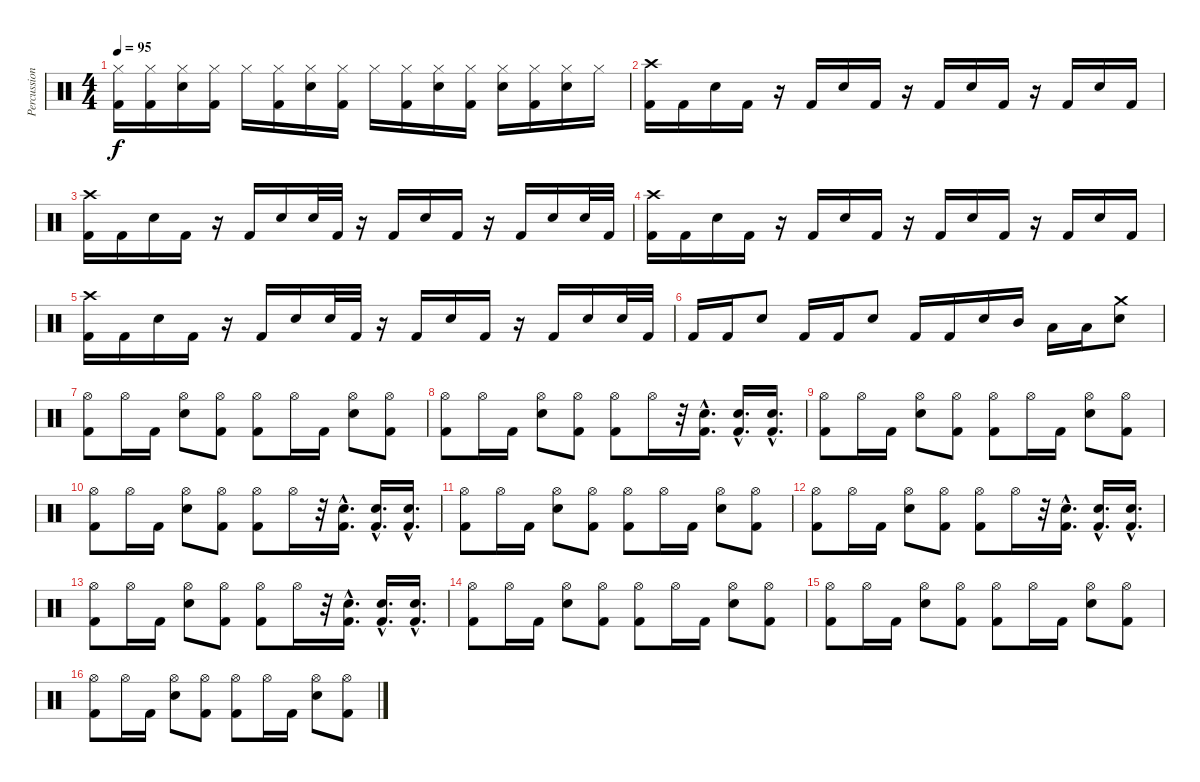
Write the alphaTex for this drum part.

\track ("Percussion" "Percussion") {instrument percussion}
\staff {score}
\articulation defaults
\ts (4 4)
\tempo 95
\clef neutral
\ks c
("Hi-Hat (closed)" "Kick (hit) 2").16{dy f} ("Hi-Hat (closed)" "Kick (hit) 2").16 ("Hi-Hat (closed)" "Electric Snare (hit)").16 ("Hi-Hat (closed)" "Kick (hit) 2").16 "Hi-Hat (closed)".16 ("Hi-Hat (closed)" "Kick (hit) 2").16 ("Hi-Hat (closed)" "Electric Snare (hit)").16 ("Hi-Hat (closed)" "Kick (hit) 2").16 "Hi-Hat (closed)".16 ("Hi-Hat (closed)" "Kick (hit) 2").16 ("Hi-Hat (closed)" "Electric Snare (hit)").16 ("Hi-Hat (closed)" "Kick (hit) 2").16 ("Hi-Hat (closed)" "Electric Snare (hit)").16 ("Hi-Hat (closed)" "Kick (hit) 2").16 ("Hi-Hat (closed)" "Electric Snare (hit)").16 "Hi-Hat (closed)".16 |
("Crash high (hit)" "Kick (hit) 2").16 "Kick (hit) 2".16 "Electric Snare (hit)".16 "Kick (hit) 2".16 r.16 "Kick (hit) 2".16 "Electric Snare (hit)".16 "Kick (hit) 2".16 r.16 "Kick (hit) 2".16 "Electric Snare (hit)".16 "Kick (hit) 2".16 r.16 "Kick (hit) 2".16 "Electric Snare (hit)".16 "Kick (hit) 2".16 |
("Crash high (hit)" "Kick (hit) 2").16 "Kick (hit) 2".16 "Electric Snare (hit)".16 "Kick (hit) 2".16 r.16 "Kick (hit) 2".16 "Electric Snare (hit)".16 "Electric Snare (hit)".32 "Kick (hit) 2".32 r.16 "Kick (hit) 2".16 "Electric Snare (hit)".16 "Kick (hit) 2".16 r.16 "Kick (hit) 2".16 "Electric Snare (hit)".16 "Electric Snare (hit)".32 "Kick (hit) 2".32 |
("Crash high (hit)" "Kick (hit) 2").16 "Kick (hit) 2".16 "Electric Snare (hit)".16 "Kick (hit) 2".16 r.16 "Kick (hit) 2".16 "Electric Snare (hit)".16 "Kick (hit) 2".16 r.16 "Kick (hit) 2".16 "Electric Snare (hit)".16 "Kick (hit) 2".16 r.16 "Kick (hit) 2".16 "Electric Snare (hit)".16 "Kick (hit) 2".16 |
("Crash high (hit)" "Kick (hit) 2").16 "Kick (hit) 2".16 "Electric Snare (hit)".16 "Kick (hit) 2".16 r.16 "Kick (hit) 2".16 "Electric Snare (hit)".16 "Electric Snare (hit)".32 "Kick (hit) 2".32 r.16 "Kick (hit) 2".16 "Electric Snare (hit)".16 "Kick (hit) 2".16 r.16 "Kick (hit) 2".16 "Electric Snare (hit)".16 "Electric Snare (hit)".32 "Kick (hit) 2".32 |
"Kick (hit) 2".16 "Kick (hit) 2".16 "Electric Snare (hit)".8 "Kick (hit) 2".16 "Kick (hit) 2".16 "Electric Snare (hit)".8 "Kick (hit) 2".16 "Kick (hit) 2".16 "Electric Snare (hit)".16 "Mid Tom (hit)".16 "Low Tom (hit)".16 "Low Tom (hit)".16 ("Crash medium (hit)" "Electric Snare (hit)").8 |
("Hi-Hat (open)" "Kick (hit) 2").8 "Hi-Hat (open)".16 "Kick (hit) 2".16 ("Hi-Hat (open)" "Electric Snare (hit)").8 ("Hi-Hat (open)" "Kick (hit) 2").8 ("Hi-Hat (open)" "Kick (hit) 2").8 "Hi-Hat (open)".16 "Kick (hit) 2".16 ("Hi-Hat (open)" "Electric Snare (hit)").8 ("Hi-Hat (open)" "Kick (hit) 2").8 |
("Hi-Hat (open)" "Kick (hit) 2").8 "Hi-Hat (open)".16 "Kick (hit) 2".16 ("Hi-Hat (open)" "Electric Snare (hit)").8 ("Hi-Hat (open)" "Kick (hit) 2").8 ("Hi-Hat (open)" "Kick (hit) 2").8 "Hi-Hat (open)".16 r.32 ("Electric Snare (hit)"{hac} "Kick (hit) 2"{hac}).16{d} ("Electric Snare (hit)"{hac} "Kick (hit) 2"{hac}).16{d} ("Electric Snare (hit)"{hac} "Kick (hit) 2"{hac}).16{d} |
("Hi-Hat (open)" "Kick (hit) 2").8 "Hi-Hat (open)".16 "Kick (hit) 2".16 ("Hi-Hat (open)" "Electric Snare (hit)").8 ("Hi-Hat (open)" "Kick (hit) 2").8 ("Hi-Hat (open)" "Kick (hit) 2").8 "Hi-Hat (open)".16 "Kick (hit) 2".16 ("Hi-Hat (open)" "Electric Snare (hit)").8 ("Hi-Hat (open)" "Kick (hit) 2").8 |
("Hi-Hat (open)" "Kick (hit) 2").8 "Hi-Hat (open)".16 "Kick (hit) 2".16 ("Hi-Hat (open)" "Electric Snare (hit)").8 ("Hi-Hat (open)" "Kick (hit) 2").8 ("Hi-Hat (open)" "Kick (hit) 2").8 "Hi-Hat (open)".16 r.32 ("Electric Snare (hit)"{hac} "Kick (hit) 2"{hac}).16{d} ("Electric Snare (hit)"{hac} "Kick (hit) 2"{hac}).16{d} ("Electric Snare (hit)"{hac} "Kick (hit) 2"{hac}).16{d} |
("Hi-Hat (open)" "Kick (hit) 2").8 "Hi-Hat (open)".16 "Kick (hit) 2".16 ("Hi-Hat (open)" "Electric Snare (hit)").8 ("Hi-Hat (open)" "Kick (hit) 2").8 ("Hi-Hat (open)" "Kick (hit) 2").8 "Hi-Hat (open)".16 "Kick (hit) 2".16 ("Hi-Hat (open)" "Electric Snare (hit)").8 ("Hi-Hat (open)" "Kick (hit) 2").8 |
("Hi-Hat (open)" "Kick (hit) 2").8 "Hi-Hat (open)".16 "Kick (hit) 2".16 ("Hi-Hat (open)" "Electric Snare (hit)").8 ("Hi-Hat (open)" "Kick (hit) 2").8 ("Hi-Hat (open)" "Kick (hit) 2").8 "Hi-Hat (open)".16 r.32 ("Electric Snare (hit)"{hac} "Kick (hit) 2"{hac}).16{d} ("Electric Snare (hit)"{hac} "Kick (hit) 2"{hac}).16{d} ("Electric Snare (hit)"{hac} "Kick (hit) 2"{hac}).16{d} |
("Hi-Hat (open)" "Kick (hit) 2").8 "Hi-Hat (open)".16 "Kick (hit) 2".16 ("Hi-Hat (open)" "Electric Snare (hit)").8 ("Hi-Hat (open)" "Kick (hit) 2").8 ("Hi-Hat (open)" "Kick (hit) 2").8 "Hi-Hat (open)".16 r.32 ("Electric Snare (hit)"{hac} "Kick (hit) 2"{hac}).16{d} ("Electric Snare (hit)"{hac} "Kick (hit) 2"{hac}).16{d} ("Electric Snare (hit)"{hac} "Kick (hit) 2"{hac}).16{d} |
("Hi-Hat (open)" "Kick (hit) 2").8 "Hi-Hat (open)".16 "Kick (hit) 2".16 ("Hi-Hat (open)" "Electric Snare (hit)").8 ("Hi-Hat (open)" "Kick (hit) 2").8 ("Hi-Hat (open)" "Kick (hit) 2").8 "Hi-Hat (open)".16 "Kick (hit) 2".16 ("Hi-Hat (open)" "Electric Snare (hit)").8 ("Hi-Hat (open)" "Kick (hit) 2").8 |
("Hi-Hat (open)" "Kick (hit) 2").8 "Hi-Hat (open)".16 "Kick (hit) 2".16 ("Hi-Hat (open)" "Electric Snare (hit)").8 ("Hi-Hat (open)" "Kick (hit) 2").8 ("Hi-Hat (open)" "Kick (hit) 2").8 "Hi-Hat (open)".16 "Kick (hit) 2".16 ("Hi-Hat (open)" "Electric Snare (hit)").8 ("Hi-Hat (open)" "Kick (hit) 2").8 |
("Hi-Hat (open)" "Kick (hit) 2").8 "Hi-Hat (open)".16 "Kick (hit) 2".16 ("Hi-Hat (open)" "Electric Snare (hit)").8 ("Hi-Hat (open)" "Kick (hit) 2").8 ("Hi-Hat (open)" "Kick (hit) 2").8 "Hi-Hat (open)".16 "Kick (hit) 2".16 ("Hi-Hat (open)" "Electric Snare (hit)").8 ("Hi-Hat (open)" "Kick (hit) 2").8
